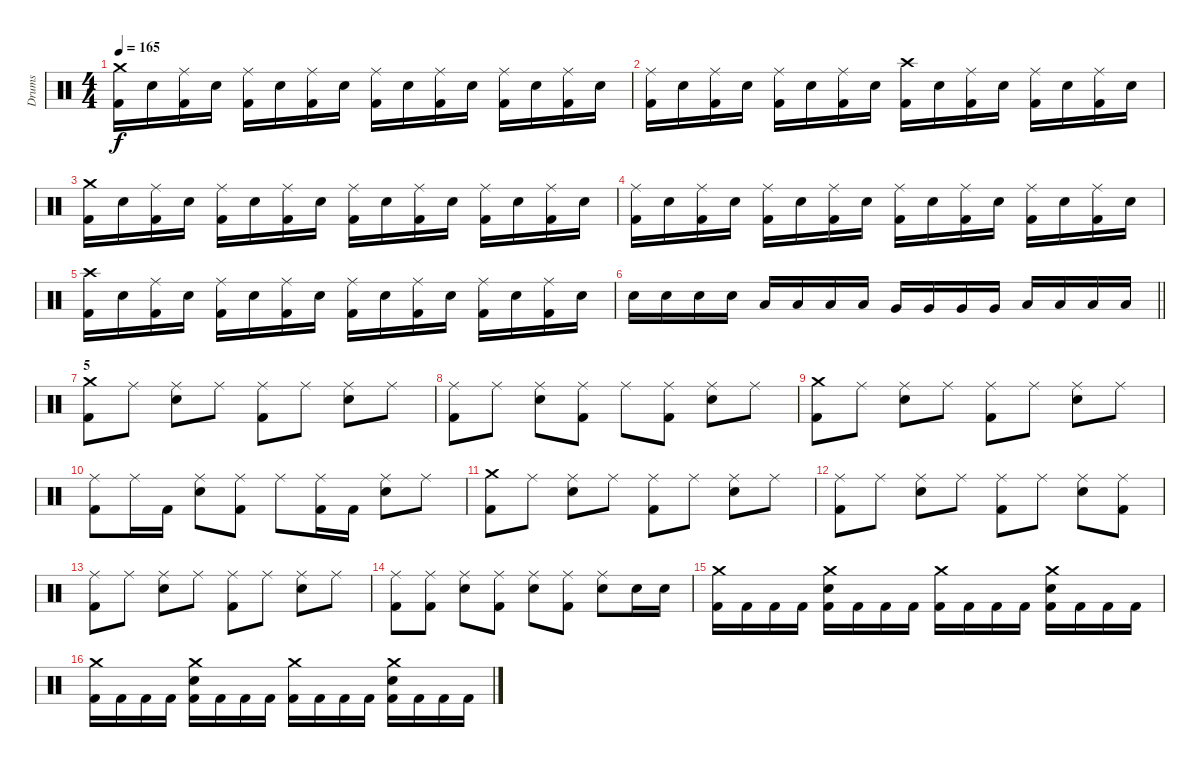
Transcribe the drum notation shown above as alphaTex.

\track ("Drums" "Drums") {instrument percussion}
\staff {score}
\articulation defaults
\ts (4 4)
\tempo 165
\clef neutral
\ks c
("Crash medium (hit)" "Kick (hit) 2").16{dy f} "Electric Snare (hit)".16 ("Ride (middle)" "Kick (hit) 2").16 "Electric Snare (hit)".16 ("Ride (middle)" "Kick (hit) 2").16 "Electric Snare (hit)".16 ("Ride (middle)" "Kick (hit) 2").16 "Electric Snare (hit)".16 ("Ride (middle)" "Kick (hit) 2").16 "Electric Snare (hit)".16 ("Ride (middle)" "Kick (hit) 2").16 "Electric Snare (hit)".16 ("Ride (middle)" "Kick (hit) 2").16 "Electric Snare (hit)".16 ("Ride (middle)" "Kick (hit) 2").16 "Electric Snare (hit)".16 |
("Ride (middle)" "Kick (hit) 2").16 "Electric Snare (hit)".16 ("Ride (middle)" "Kick (hit) 2").16 "Electric Snare (hit)".16 ("Ride (middle)" "Kick (hit) 2").16 "Electric Snare (hit)".16 ("Ride (middle)" "Kick (hit) 2").16 "Electric Snare (hit)".16 ("Crash high (hit)" "Kick (hit) 2").16 "Electric Snare (hit)".16 ("Ride (middle)" "Kick (hit) 2").16 "Electric Snare (hit)".16 ("Ride (middle)" "Kick (hit) 2").16 "Electric Snare (hit)".16 ("Ride (middle)" "Kick (hit) 2").16 "Electric Snare (hit)".16 |
("Crash medium (hit)" "Kick (hit) 2").16 "Electric Snare (hit)".16 ("Ride (middle)" "Kick (hit) 2").16 "Electric Snare (hit)".16 ("Ride (middle)" "Kick (hit) 2").16 "Electric Snare (hit)".16 ("Ride (middle)" "Kick (hit) 2").16 "Electric Snare (hit)".16 ("Ride (middle)" "Kick (hit) 2").16 "Electric Snare (hit)".16 ("Ride (middle)" "Kick (hit) 2").16 "Electric Snare (hit)".16 ("Ride (middle)" "Kick (hit) 2").16 "Electric Snare (hit)".16 ("Ride (middle)" "Kick (hit) 2").16 "Electric Snare (hit)".16 |
("Ride (middle)" "Kick (hit) 2").16 "Electric Snare (hit)".16 ("Ride (middle)" "Kick (hit) 2").16 "Electric Snare (hit)".16 ("Ride (middle)" "Kick (hit) 2").16 "Electric Snare (hit)".16 ("Ride (middle)" "Kick (hit) 2").16 "Electric Snare (hit)".16 ("Ride (middle)" "Kick (hit) 2").16 "Electric Snare (hit)".16 ("Ride (middle)" "Kick (hit) 2").16 "Electric Snare (hit)".16 ("Ride (middle)" "Kick (hit) 2").16 "Electric Snare (hit)".16 ("Ride (middle)" "Kick (hit) 2").16 "Electric Snare (hit)".16 |
("Crash high (hit)" "Kick (hit) 2").16 "Electric Snare (hit)".16 ("Ride (middle)" "Kick (hit) 2").16 "Electric Snare (hit)".16 ("Ride (middle)" "Kick (hit) 2").16 "Electric Snare (hit)".16 ("Ride (middle)" "Kick (hit) 2").16 "Electric Snare (hit)".16 ("Ride (middle)" "Kick (hit) 2").16 "Electric Snare (hit)".16 ("Ride (middle)" "Kick (hit) 2").16 "Electric Snare (hit)".16 ("Ride (middle)" "Kick (hit) 2").16 "Electric Snare (hit)".16 ("Ride (middle)" "Kick (hit) 2").16 "Electric Snare (hit)".16 |
\barLineRight lightlight "Electric Snare (hit)".16 "Electric Snare (hit)".16 "Electric Snare (hit)".16 "Electric Snare (hit)".16 "Low Tom (hit)".16 "Low Tom (hit)".16 "Low Tom (hit)".16 "Low Tom (hit)".16 "Very Low Tom (hit)".16 "Very Low Tom (hit)".16 "Very Low Tom (hit)".16 "Very Low Tom (hit)".16 "Low Floor Tom (hit)".16 "Low Floor Tom (hit)".16 "Low Floor Tom (hit)".16 "Low Floor Tom (hit)".16
|
\section ("" "5")
("Crash medium (hit)" "Kick (hit) 2").8 "Ride (middle)".8 ("Ride (middle)" "Electric Snare (hit)").8 "Ride (middle)".8 ("Ride (middle)" "Kick (hit) 2").8 "Ride (middle)".8 ("Ride (middle)" "Electric Snare (hit)").8 "Ride (middle)".8 |
("Ride (middle)" "Kick (hit) 2").8 "Ride (middle)".8 ("Ride (middle)" "Electric Snare (hit)").8 ("Ride (middle)" "Kick (hit) 2").8 "Ride (middle)".8 ("Ride (middle)" "Kick (hit) 2").8 ("Ride (middle)" "Electric Snare (hit)").8 "Ride (middle)".8 |
("Crash medium (hit)" "Kick (hit) 2").8 "Ride (middle)".8 ("Ride (middle)" "Electric Snare (hit)").8 "Ride (middle)".8 ("Ride (middle)" "Kick (hit) 2").8 "Ride (middle)".8 ("Ride (middle)" "Electric Snare (hit)").8 "Ride (middle)".8 |
("Ride (middle)" "Kick (hit) 2").8 "Ride (middle)".16 "Kick (hit) 2".16 ("Ride (middle)" "Electric Snare (hit)").8 ("Ride (middle)" "Kick (hit) 2").8 "Ride (middle)".8 ("Ride (middle)" "Kick (hit) 2").16 "Kick (hit) 2".16 ("Ride (middle)" "Electric Snare (hit)").8 "Ride (middle)".8 |
("Crash medium (hit)" "Kick (hit) 2").8 "Ride (middle)".8 ("Ride (middle)" "Electric Snare (hit)").8 "Ride (middle)".8 ("Ride (middle)" "Kick (hit) 2").8 "Ride (middle)".8 ("Ride (middle)" "Electric Snare (hit)").8 "Ride (middle)".8 |
("Ride (middle)" "Kick (hit) 2").8 "Ride (middle)".8 ("Ride (middle)" "Electric Snare (hit)").8 "Ride (middle)".8 ("Ride (middle)" "Kick (hit) 2").8 "Ride (middle)".8 ("Ride (middle)" "Electric Snare (hit)").8 ("Ride (middle)" "Kick (hit) 2").8 |
("Ride (middle)" "Kick (hit) 2").8 "Ride (middle)".8 ("Ride (middle)" "Electric Snare (hit)").8 "Ride (middle)".8 ("Ride (middle)" "Kick (hit) 2").8 "Ride (middle)".8 ("Ride (middle)" "Electric Snare (hit)").8 "Ride (middle)".8 |
("Ride (middle)" "Kick (hit) 2").8 ("Ride (middle)" "Kick (hit) 2").8 ("Ride (middle)" "Electric Snare (hit)").8 ("Ride (middle)" "Kick (hit) 2").8 ("Ride (middle)" "Electric Snare (hit)").8 ("Ride (middle)" "Kick (hit) 2").8 ("Ride (middle)" "Electric Snare (hit)").8 "Electric Snare (hit)".16 "Electric Snare (hit)".16 |
("Crash medium (hit)" "Kick (hit) 2").16 "Kick (hit) 2".16 "Kick (hit) 2".16 "Kick (hit) 2".16 ("Crash medium (hit)" "Electric Snare (hit)" "Kick (hit) 2").16 "Kick (hit) 2".16 "Kick (hit) 2".16 "Kick (hit) 2".16 ("Crash medium (hit)" "Kick (hit) 2").16 "Kick (hit) 2".16 "Kick (hit) 2".16 "Kick (hit) 2".16 ("Crash medium (hit)" "Electric Snare (hit)" "Kick (hit) 2").16 "Kick (hit) 2".16 "Kick (hit) 2".16 "Kick (hit) 2".16 |
("Crash medium (hit)" "Kick (hit) 2").16 "Kick (hit) 2".16 "Kick (hit) 2".16 "Kick (hit) 2".16 ("Crash medium (hit)" "Electric Snare (hit)" "Kick (hit) 2").16 "Kick (hit) 2".16 "Kick (hit) 2".16 "Kick (hit) 2".16 ("Crash medium (hit)" "Kick (hit) 2").16 "Kick (hit) 2".16 "Kick (hit) 2".16 "Kick (hit) 2".16 ("Crash medium (hit)" "Electric Snare (hit)" "Kick (hit) 2").16 "Kick (hit) 2".16 "Kick (hit) 2".16 "Kick (hit) 2".16
